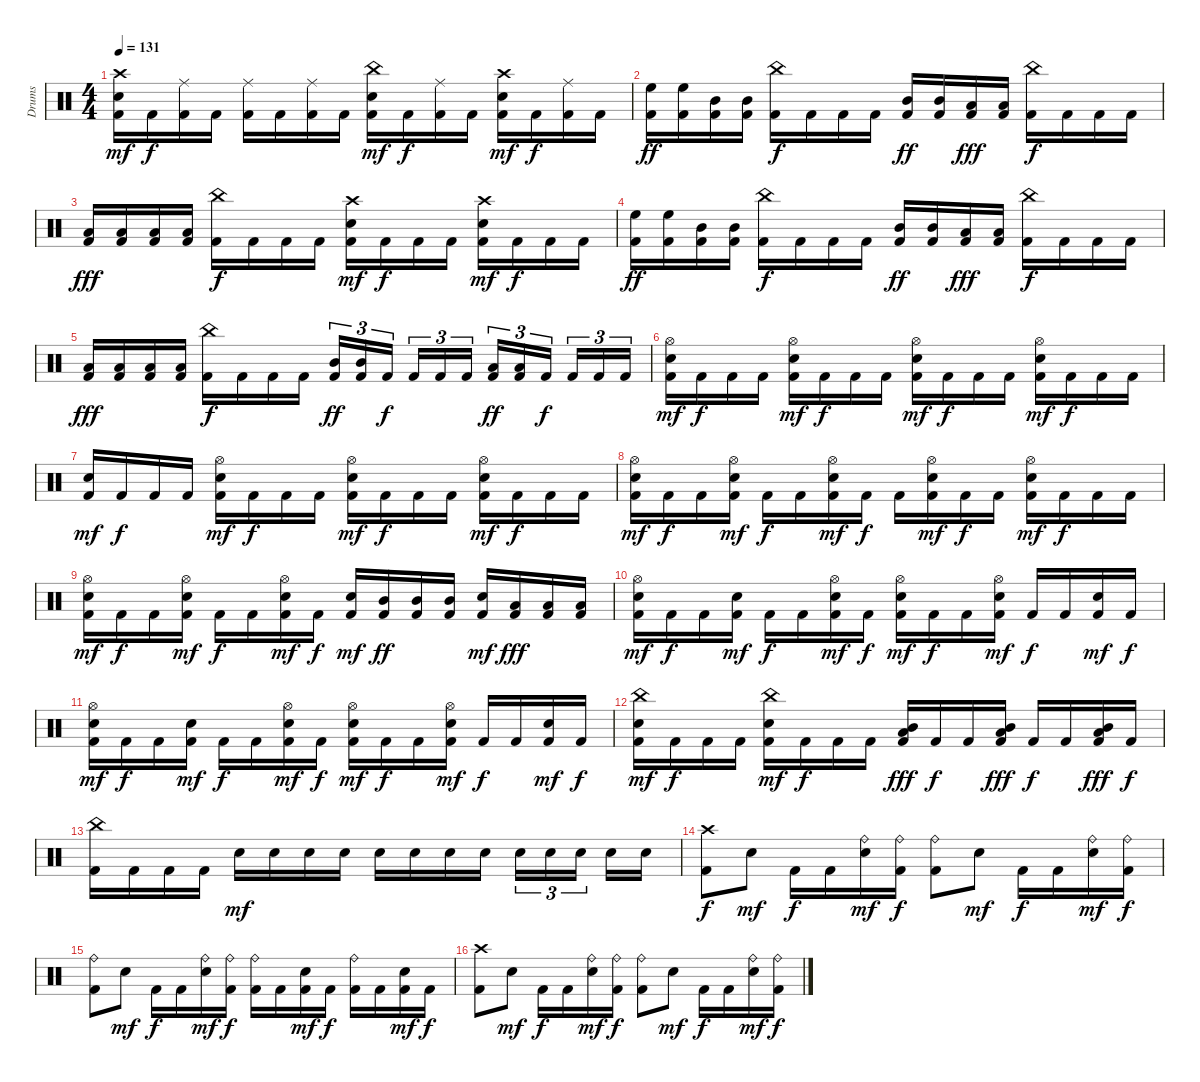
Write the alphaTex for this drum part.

\track ("Drums" "Drums") {instrument percussion}
\staff {score}
\articulation defaults
\ts (4 4)
\tempo 131
\clef neutral
\ks c
("Crash high (hit)" "Snare (hit) 2" "Kick (hit) 2").16{dy mf} "Kick (hit) 2".16{dy f} ("Ride (middle)" "Kick (hit) 2").16 "Kick (hit) 2".16 ("Ride (middle)" "Kick (hit) 2").16 "Kick (hit) 2".16 ("Ride (middle)" "Kick (hit) 2").16 "Kick (hit) 2".16 ("China (hit)" "Snare (hit) 2" "Kick (hit) 2").16{dy mf} "Kick (hit) 2".16{dy f} ("Ride (middle)" "Kick (hit) 2").16 "Kick (hit) 2".16 ("Crash high (hit)" "Snare (hit) 2" "Kick (hit) 2").16{dy mf} "Kick (hit) 2".16{dy f} ("Ride (middle)" "Kick (hit) 2").16 "Kick (hit) 2".16 |
\section ("" "")
("High Floor Tom (hit)" "Kick (hit) 2").16{dy ff} ("High Floor Tom (hit)" "Kick (hit) 2").16 ("Mid Tom (hit)" "Kick (hit) 2").16 ("Mid Tom (hit)" "Kick (hit) 2").16 ("China (hit)" "Kick (hit) 2").16{dy f} "Kick (hit) 2".16 "Kick (hit) 2".16 "Kick (hit) 2".16 ("Mid Tom (hit)" "Kick (hit) 2").16{dy ff} ("Mid Tom (hit)" "Kick (hit) 2").16 ("Low Tom (hit)" "Kick (hit) 2").16{dy fff} ("Low Tom (hit)" "Kick (hit) 2").16 ("China (hit)" "Kick (hit) 2").16{dy f} "Kick (hit) 2".16 "Kick (hit) 2".16 "Kick (hit) 2".16 |
("Low Tom (hit)" "Kick (hit) 2").16{dy fff} ("Low Tom (hit)" "Kick (hit) 2").16 ("Low Floor Tom (hit)" "Kick (hit) 2").16 ("Low Floor Tom (hit)" "Kick (hit) 2").16 ("China (hit)" "Kick (hit) 2").16{dy f} "Kick (hit) 2".16 "Kick (hit) 2".16 "Kick (hit) 2".16 ("Crash high (hit)" "Snare (hit) 2" "Kick (hit) 2").16{dy mf} "Kick (hit) 2".16{dy f} "Kick (hit) 2".16 "Kick (hit) 2".16 ("Crash high (hit)" "Snare (hit) 2" "Kick (hit) 2").16{dy mf} "Kick (hit) 2".16{dy f} "Kick (hit) 2".16 "Kick (hit) 2".16 |
("High Floor Tom (hit)" "Kick (hit) 2").16{dy ff} ("High Floor Tom (hit)" "Kick (hit) 2").16 ("Mid Tom (hit)" "Kick (hit) 2").16 ("Mid Tom (hit)" "Kick (hit) 2").16 ("China (hit)" "Kick (hit) 2").16{dy f} "Kick (hit) 2".16 "Kick (hit) 2".16 "Kick (hit) 2".16 ("Mid Tom (hit)" "Kick (hit) 2").16{dy ff} ("Mid Tom (hit)" "Kick (hit) 2").16 ("Low Tom (hit)" "Kick (hit) 2").16{dy fff} ("Low Tom (hit)" "Kick (hit) 2").16 ("China (hit)" "Kick (hit) 2").16{dy f} "Kick (hit) 2".16 "Kick (hit) 2".16 "Kick (hit) 2".16 |
("Low Tom (hit)" "Kick (hit) 2").16{dy fff} ("Low Tom (hit)" "Kick (hit) 2").16 ("Low Floor Tom (hit)" "Kick (hit) 2").16 ("Low Floor Tom (hit)" "Kick (hit) 2").16 ("China (hit)" "Kick (hit) 2").16{dy f} "Kick (hit) 2".16 "Kick (hit) 2".16 "Kick (hit) 2".16 ("Mid Tom (hit)" "Kick (hit) 2").16{tu (3 2) dy ff} ("Mid Tom (hit)" "Kick (hit) 2").16{tu (3 2)} "Kick (hit) 2".16{tu (3 2) dy f} "Kick (hit) 2".16{tu (3 2)} "Kick (hit) 2".16{tu (3 2)} "Kick (hit) 2".16{tu (3 2)} ("Low Tom (hit)" "Kick (hit) 2").16{tu (3 2) dy ff} ("Low Tom (hit)" "Kick (hit) 2").16{tu (3 2)} "Kick (hit) 2".16{tu (3 2) dy f} "Kick (hit) 2".16{tu (3 2)} "Kick (hit) 2".16{tu (3 2)} "Kick (hit) 2".16{tu (3 2)} |
\section ("" "")
("Hi-Hat (open)" "Snare (hit) 2" "Kick (hit) 2").16{dy mf} "Kick (hit) 2".16{dy f} "Kick (hit) 2".16 "Kick (hit) 2".16 ("Hi-Hat (open)" "Snare (hit) 2" "Kick (hit) 2").16{dy mf} "Kick (hit) 2".16{dy f} "Kick (hit) 2".16 "Kick (hit) 2".16 ("Hi-Hat (open)" "Snare (hit) 2" "Kick (hit) 2").16{dy mf} "Kick (hit) 2".16{dy f} "Kick (hit) 2".16 "Kick (hit) 2".16 ("Hi-Hat (open)" "Snare (hit) 2" "Kick (hit) 2").16{dy mf} "Kick (hit) 2".16{dy f} "Kick (hit) 2".16 "Kick (hit) 2".16 |
("Snare (hit) 2" "Kick (hit) 2").16{dy mf} "Kick (hit) 2".16{dy f} "Kick (hit) 2".16 "Kick (hit) 2".16 ("Hi-Hat (open)" "Snare (hit) 2" "Kick (hit) 2").16{dy mf} "Kick (hit) 2".16{dy f} "Kick (hit) 2".16 "Kick (hit) 2".16 ("Hi-Hat (open)" "Snare (hit) 2" "Kick (hit) 2").16{dy mf} "Kick (hit) 2".16{dy f} "Kick (hit) 2".16 "Kick (hit) 2".16 ("Hi-Hat (open)" "Snare (hit) 2" "Kick (hit) 2").16{dy mf} "Kick (hit) 2".16{dy f} "Kick (hit) 2".16 "Kick (hit) 2".16 |
("Hi-Hat (open)" "Snare (hit) 2" "Kick (hit) 2").16{dy mf} "Kick (hit) 2".16{dy f} "Kick (hit) 2".16 ("Hi-Hat (open)" "Snare (hit) 2" "Kick (hit) 2").16{dy mf} "Kick (hit) 2".16{dy f} "Kick (hit) 2".16 ("Hi-Hat (open)" "Snare (hit) 2" "Kick (hit) 2").16{dy mf} "Kick (hit) 2".16{dy f} "Kick (hit) 2".16 ("Hi-Hat (open)" "Snare (hit) 2" "Kick (hit) 2").16{dy mf} "Kick (hit) 2".16{dy f} "Kick (hit) 2".16 ("Hi-Hat (open)" "Snare (hit) 2" "Kick (hit) 2").16{dy mf} "Kick (hit) 2".16{dy f} "Kick (hit) 2".16 "Kick (hit) 2".16 |
("Hi-Hat (open)" "Snare (hit) 2" "Kick (hit) 2").16{dy mf} "Kick (hit) 2".16{dy f} "Kick (hit) 2".16 ("Hi-Hat (open)" "Snare (hit) 2" "Kick (hit) 2").16{dy mf} "Kick (hit) 2".16{dy f} "Kick (hit) 2".16 ("Hi-Hat (open)" "Snare (hit) 2" "Kick (hit) 2").16{dy mf} "Kick (hit) 2".16{dy f} ("Snare (hit) 2" "Kick (hit) 2").16{dy mf} ("Mid Tom (hit)" "Kick (hit) 2").16{dy ff} ("Mid Tom (hit)" "Kick (hit) 2").16 ("Mid Tom (hit)" "Kick (hit) 2").16 ("Snare (hit) 2" "Kick (hit) 2").16{dy mf} ("Low Tom (hit)" "Kick (hit) 2").16{dy fff} ("Low Tom (hit)" "Kick (hit) 2").16 ("Low Tom (hit)" "Kick (hit) 2").16 |
("Hi-Hat (open)" "Snare (hit) 2" "Kick (hit) 2").16{dy mf} "Kick (hit) 2".16{dy f} "Kick (hit) 2".16 ("Snare (hit) 2" "Kick (hit) 2").16{dy mf} "Kick (hit) 2".16{dy f} "Kick (hit) 2".16 ("Hi-Hat (open)" "Snare (hit) 2" "Kick (hit) 2").16{dy mf} "Kick (hit) 2".16{dy f} ("Hi-Hat (open)" "Snare (hit) 2" "Kick (hit) 2").16{dy mf} "Kick (hit) 2".16{dy f} "Kick (hit) 2".16 ("Hi-Hat (open)" "Snare (hit) 2" "Kick (hit) 2").16{dy mf} "Kick (hit) 2".16{dy f} "Kick (hit) 2".16 ("Snare (hit) 2" "Kick (hit) 2").16{dy mf} "Kick (hit) 2".16{dy f} |
("Hi-Hat (open)" "Snare (hit) 2" "Kick (hit) 2").16{dy mf} "Kick (hit) 2".16{dy f} "Kick (hit) 2".16 ("Snare (hit) 2" "Kick (hit) 2").16{dy mf} "Kick (hit) 2".16{dy f} "Kick (hit) 2".16 ("Hi-Hat (open)" "Snare (hit) 2" "Kick (hit) 2").16{dy mf} "Kick (hit) 2".16{dy f} ("Hi-Hat (open)" "Snare (hit) 2" "Kick (hit) 2").16{dy mf} "Kick (hit) 2".16{dy f} "Kick (hit) 2".16 ("Hi-Hat (open)" "Snare (hit) 2" "Kick (hit) 2").16{dy mf} "Kick (hit) 2".16{dy f} "Kick (hit) 2".16 ("Snare (hit) 2" "Kick (hit) 2").16{dy mf} "Kick (hit) 2".16{dy f} |
("China (hit)" "Snare (hit) 2" "Kick (hit) 2").16{dy mf} "Kick (hit) 2".16{dy f} "Kick (hit) 2".16 "Kick (hit) 2".16 ("China (hit)" "Snare (hit) 2" "Kick (hit) 2").16{dy mf} "Kick (hit) 2".16{dy f} "Kick (hit) 2".16 "Kick (hit) 2".16 ("Mid Tom (hit)" "Low Tom (hit)" "Kick (hit) 2").16{dy fff} "Kick (hit) 2".16{dy f} "Kick (hit) 2".16 ("Mid Tom (hit)" "Low Tom (hit)" "Kick (hit) 2").16{dy fff} "Kick (hit) 2".16{dy f} "Kick (hit) 2".16 ("Mid Tom (hit)" "Low Tom (hit)" "Kick (hit) 2").16{dy fff} "Kick (hit) 2".16{dy f} |
("China (hit)" "Kick (hit) 2").16 "Kick (hit) 2".16 "Kick (hit) 2".16 "Kick (hit) 2".16 "Snare (hit) 2".16{dy mf} "Snare (hit) 2".16 "Snare (hit) 2".16 "Snare (hit) 2".16 "Snare (hit) 2".16 "Snare (hit) 2".16 "Snare (hit) 2".16 "Snare (hit) 2".16 "Snare (hit) 2".16{tu (3 2)} "Snare (hit) 2".16{tu (3 2)} "Snare (hit) 2".16{tu (3 2)} "Snare (hit) 2".16 "Snare (hit) 2".16 |
\section ("" "")
("Crash high (hit)" "Kick (hit) 2").8{dy f} "Snare (hit) 2".8{dy mf} "Kick (hit) 2".16{dy f} "Kick (hit) 2".16 ("Ride (bell)" "Snare (hit) 2").16{dy mf} ("Ride (bell)" "Kick (hit) 2").16{dy f} ("Ride (bell)" "Kick (hit) 2").8 "Snare (hit) 2".8{dy mf} "Kick (hit) 2".16{dy f} "Kick (hit) 2".16 ("Ride (bell)" "Snare (hit) 2").16{dy mf} ("Ride (bell)" "Kick (hit) 2").16{dy f} |
("Ride (bell)" "Kick (hit) 2").8 "Snare (hit) 2".8{dy mf} "Kick (hit) 2".16{dy f} "Kick (hit) 2".16 ("Ride (bell)" "Snare (hit) 2").16{dy mf} ("Ride (bell)" "Kick (hit) 2").16{dy f} ("Ride (bell)" "Kick (hit) 2").16 "Kick (hit) 2".16 ("Snare (hit) 2" "Kick (hit) 2").16{dy mf} "Kick (hit) 2".16{dy f} ("Ride (bell)" "Kick (hit) 2").16 "Kick (hit) 2".16 ("Snare (hit) 2" "Kick (hit) 2").16{dy mf} "Kick (hit) 2".16{dy f} |
("Crash high (hit)" "Kick (hit) 2").8 "Snare (hit) 2".8{dy mf} "Kick (hit) 2".16{dy f} "Kick (hit) 2".16 ("Ride (bell)" "Snare (hit) 2").16{dy mf} ("Ride (bell)" "Kick (hit) 2").16{dy f} ("Ride (bell)" "Kick (hit) 2").8 "Snare (hit) 2".8{dy mf} "Kick (hit) 2".16{dy f} "Kick (hit) 2".16 ("Ride (bell)" "Snare (hit) 2").16{dy mf} ("Ride (bell)" "Kick (hit) 2").16{dy f}
